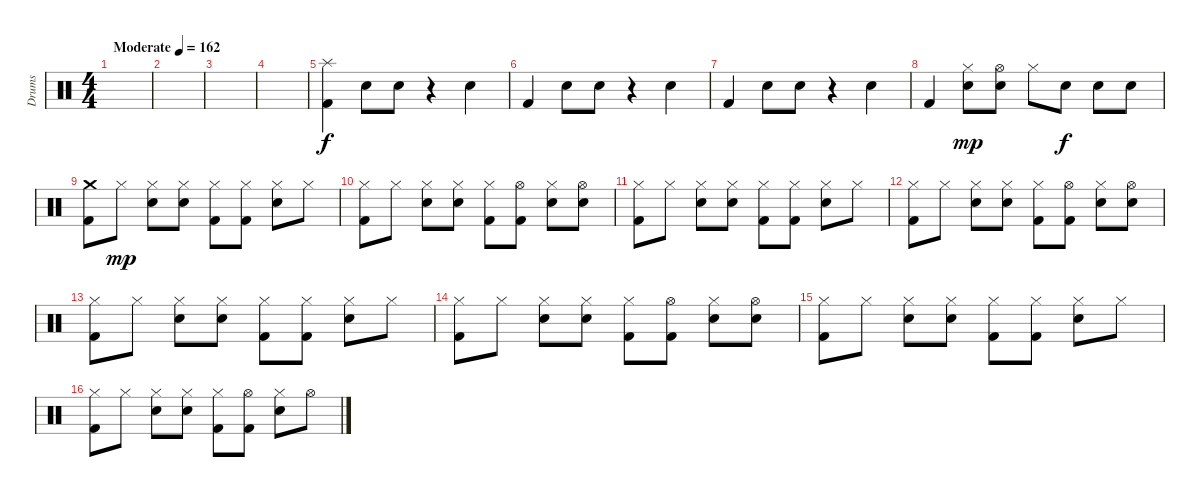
\track ("Drums" "Drums") {instrument percussion}
\staff {score}
\articulation defaults
\ts (4 4)
\tempo (162 "Moderate")
\clef neutral
\ks c
|
|
|
|
("Splash (hit)" "Kick (hit) 2").4 "Snare (hit) 2".8 "Snare (hit) 2".8 r.4 "Snare (hit) 2".4 |
"Kick (hit) 2".4 "Snare (hit) 2".8 "Snare (hit) 2".8 r.4 "Snare (hit) 2".4 |
"Kick (hit) 2".4 "Snare (hit) 2".8 "Snare (hit) 2".8 r.4 "Snare (hit) 2".4 |
"Kick (hit) 2".4 ("Hi-Hat (closed)" "Snare (hit) 2").8{dy mp} ("Hi-Hat (open)" "Snare (hit) 2").8 "Hi-Hat (closed)".8 "Snare (hit) 2".8{dy f} "Snare (hit) 2".8 "Snare (hit) 2".8 |
("Crash medium (hit)" "Kick (hit) 2").8 "Hi-Hat (closed)".8{dy mp} ("Hi-Hat (closed)" "Snare (hit) 2").8 ("Hi-Hat (closed)" "Snare (hit) 2").8 ("Hi-Hat (closed)" "Kick (hit) 2").8 ("Hi-Hat (closed)" "Kick (hit) 2").8 ("Hi-Hat (closed)" "Snare (hit) 2").8 "Hi-Hat (closed)".8 |
("Hi-Hat (closed)" "Kick (hit) 2").8 "Hi-Hat (closed)".8 ("Hi-Hat (closed)" "Snare (hit) 2").8 ("Hi-Hat (closed)" "Snare (hit) 2").8 ("Hi-Hat (closed)" "Kick (hit) 2").8 ("Hi-Hat (open)" "Kick (hit) 2").8 ("Hi-Hat (closed)" "Snare (hit) 2").8 ("Hi-Hat (open)" "Snare (hit) 2").8 |
("Hi-Hat (closed)" "Kick (hit) 2").8 "Hi-Hat (closed)".8 ("Hi-Hat (closed)" "Snare (hit) 2").8 ("Hi-Hat (closed)" "Snare (hit) 2").8 ("Hi-Hat (closed)" "Kick (hit) 2").8 ("Hi-Hat (closed)" "Kick (hit) 2").8 ("Hi-Hat (closed)" "Snare (hit) 2").8 "Hi-Hat (closed)".8 |
("Hi-Hat (closed)" "Kick (hit) 2").8 "Hi-Hat (closed)".8 ("Hi-Hat (closed)" "Snare (hit) 2").8 ("Hi-Hat (closed)" "Snare (hit) 2").8 ("Hi-Hat (closed)" "Kick (hit) 2").8 ("Hi-Hat (open)" "Kick (hit) 2").8 ("Hi-Hat (closed)" "Snare (hit) 2").8 ("Hi-Hat (open)" "Snare (hit) 2").8 |
("Hi-Hat (closed)" "Kick (hit) 2").8 "Hi-Hat (closed)".8 ("Hi-Hat (closed)" "Snare (hit) 2").8 ("Hi-Hat (closed)" "Snare (hit) 2").8 ("Hi-Hat (closed)" "Kick (hit) 2").8 ("Hi-Hat (closed)" "Kick (hit) 2").8 ("Hi-Hat (closed)" "Snare (hit) 2").8 "Hi-Hat (closed)".8 |
("Hi-Hat (closed)" "Kick (hit) 2").8 "Hi-Hat (closed)".8 ("Hi-Hat (closed)" "Snare (hit) 2").8 ("Hi-Hat (closed)" "Snare (hit) 2").8 ("Hi-Hat (closed)" "Kick (hit) 2").8 ("Hi-Hat (open)" "Kick (hit) 2").8 ("Hi-Hat (closed)" "Snare (hit) 2").8 ("Hi-Hat (open)" "Snare (hit) 2").8 |
("Hi-Hat (closed)" "Kick (hit) 2").8 "Hi-Hat (closed)".8 ("Hi-Hat (closed)" "Snare (hit) 2").8 ("Hi-Hat (closed)" "Snare (hit) 2").8 ("Hi-Hat (closed)" "Kick (hit) 2").8 ("Hi-Hat (closed)" "Kick (hit) 2").8 ("Hi-Hat (closed)" "Snare (hit) 2").8 "Hi-Hat (closed)".8 |
("Hi-Hat (closed)" "Kick (hit) 2").8 "Hi-Hat (closed)".8 ("Hi-Hat (closed)" "Snare (hit) 2").8 ("Hi-Hat (closed)" "Snare (hit) 2").8 ("Hi-Hat (closed)" "Kick (hit) 2").8 ("Hi-Hat (open)" "Kick (hit) 2").8 ("Hi-Hat (closed)" "Snare (hit) 2").8 "Hi-Hat (open)".8
